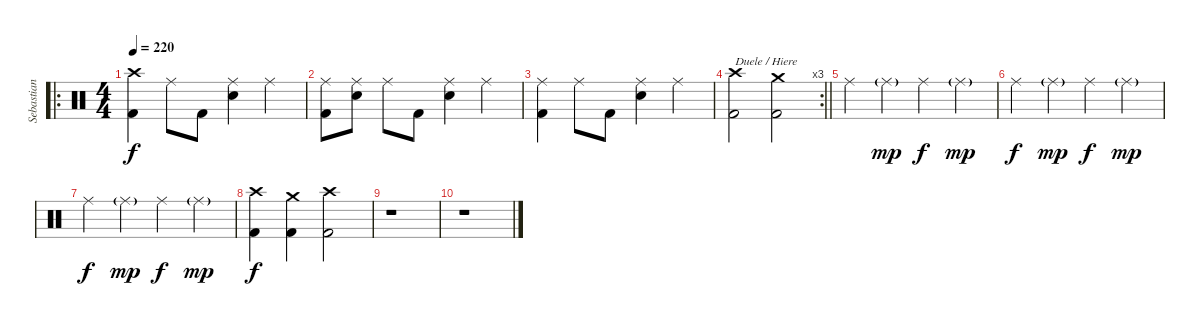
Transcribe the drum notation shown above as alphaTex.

\track ("Sebastian" "Sebastian") {instrument percussion}
\staff {score}
\articulation defaults
\ro
\ts (4 4)
\tempo 220
\clef neutral
\ks c
("Crash high (hit)" "Kick (hit) 2").4{dy f} "Ride (middle)".8 "Kick (hit) 2".8 ("Ride (middle)" "Snare (hit) 2").4 "Ride (middle)".4 |
("Ride (middle)" "Kick (hit) 2").8 ("Ride (middle)" "Snare (hit) 2").8 "Ride (middle)".8 "Kick (hit) 2".8 ("Ride (middle)" "Snare (hit) 2").4 "Ride (middle)".4 |
("Ride (middle)" "Kick (hit) 2").4 "Ride (middle)".8 "Kick (hit) 2".8 ("Ride (middle)" "Snare (hit) 2").4 "Ride (middle)".4 |
\rc 3
\barLineRight lightlight
("Crash high (hit)" "Kick (hit) 2").2{txt "Duele / Hiere"} ("Crash medium (hit)" "Kick (hit) 2").2 |
"Ride (middle)".4 "Ride (middle)"{g}.4{dy mp} "Ride (middle)".4{dy f} "Ride (middle)"{g}.4{dy mp} |
"Ride (middle)".4{dy f} "Ride (middle)"{g}.4{dy mp} "Ride (middle)".4{dy f} "Ride (middle)"{g}.4{dy mp} |
"Ride (middle)".4{dy f} "Ride (middle)"{g}.4{dy mp} "Ride (middle)".4{dy f} "Ride (middle)"{g}.4{dy mp} |
("Crash high (hit)" "Kick (hit) 2").4{dy f} ("Crash medium (hit)" "Kick (hit) 2").4 ("Crash high (hit)" "Kick (hit) 2").2 |
r.1 |
r.1
